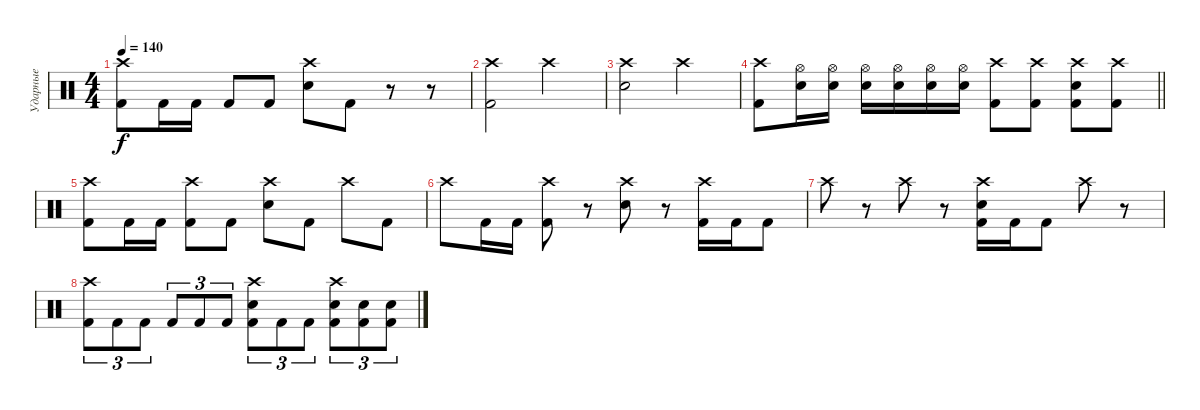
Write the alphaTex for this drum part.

\track ("Ударные" "Ударные") {instrument percussion}
\staff {score}
\articulation defaults
\ts (4 4)
\tempo 140
\clef neutral
\ks c
("Crash high (hit)" "Kick (hit) 2").8{dy f} "Kick (hit) 2".16 "Kick (hit) 2".16 "Kick (hit) 2".8 "Kick (hit) 2".8 ("Crash high (hit)" "Electric Snare (hit)").8 "Kick (hit) 2".8 r.8 r.8 |
("Crash high (hit)" "Kick (hit) 2").2 "Crash high (hit)".2 |
("Crash high (hit)" "Electric Snare (hit)").2 "Crash high (hit)".2 |
\barLineRight lightlight
("Crash high (hit)" "Kick (hit) 2").8 ("Hi-Hat (open)" "Electric Snare (hit)").16 ("Hi-Hat (open)" "Electric Snare (hit)").16 ("Hi-Hat (open)" "Electric Snare (hit)").16 ("Hi-Hat (open)" "Electric Snare (hit)").16 ("Hi-Hat (open)" "Electric Snare (hit)").16 ("Hi-Hat (open)" "Electric Snare (hit)").16 ("Crash high (hit)" "Kick (hit) 2").8 ("Crash high (hit)" "Kick (hit) 2").8 ("Crash high (hit)" "Electric Snare (hit)" "Kick (hit) 2").8 ("Crash high (hit)" "Kick (hit) 2").8 |
("Crash high (hit)" "Kick (hit) 2").8 "Kick (hit) 2".16 "Kick (hit) 2".16 ("Crash high (hit)" "Kick (hit) 2").8 "Kick (hit) 2".8 ("Crash high (hit)" "Electric Snare (hit)").8 "Kick (hit) 2".8 "Crash high (hit)".8 "Kick (hit) 2".8 |
"Crash high (hit)".8 "Kick (hit) 2".16 "Kick (hit) 2".16 ("Crash high (hit)" "Kick (hit) 2").8 r.8 ("Crash high (hit)" "Electric Snare (hit)").8 r.8 ("Crash high (hit)" "Kick (hit) 2").16 "Kick (hit) 2".16 "Kick (hit) 2".8 |
"Crash high (hit)".8 r.8 "Crash high (hit)".8 r.8 ("Crash high (hit)" "Electric Snare (hit)" "Kick (hit) 2").16 "Kick (hit) 2".16 "Kick (hit) 2".8 "Crash high (hit)".8 r.8 |
("Crash high (hit)" "Kick (hit) 2").8{tu (3 2)} "Kick (hit) 2".8{tu (3 2)} "Kick (hit) 2".8{tu (3 2)} "Kick (hit) 2".8{tu (3 2)} "Kick (hit) 2".8{tu (3 2)} "Kick (hit) 2".8{tu (3 2)} ("Crash high (hit)" "Electric Snare (hit)" "Kick (hit) 2").8{tu (3 2)} "Kick (hit) 2".8{tu (3 2)} "Kick (hit) 2".8{tu (3 2)} ("Crash high (hit)" "Electric Snare (hit)" "Kick (hit) 2").8{tu (3 2)} ("Electric Snare (hit)" "Kick (hit) 2").8{tu (3 2)} ("Electric Snare (hit)" "Kick (hit) 2").8{tu (3 2)}
